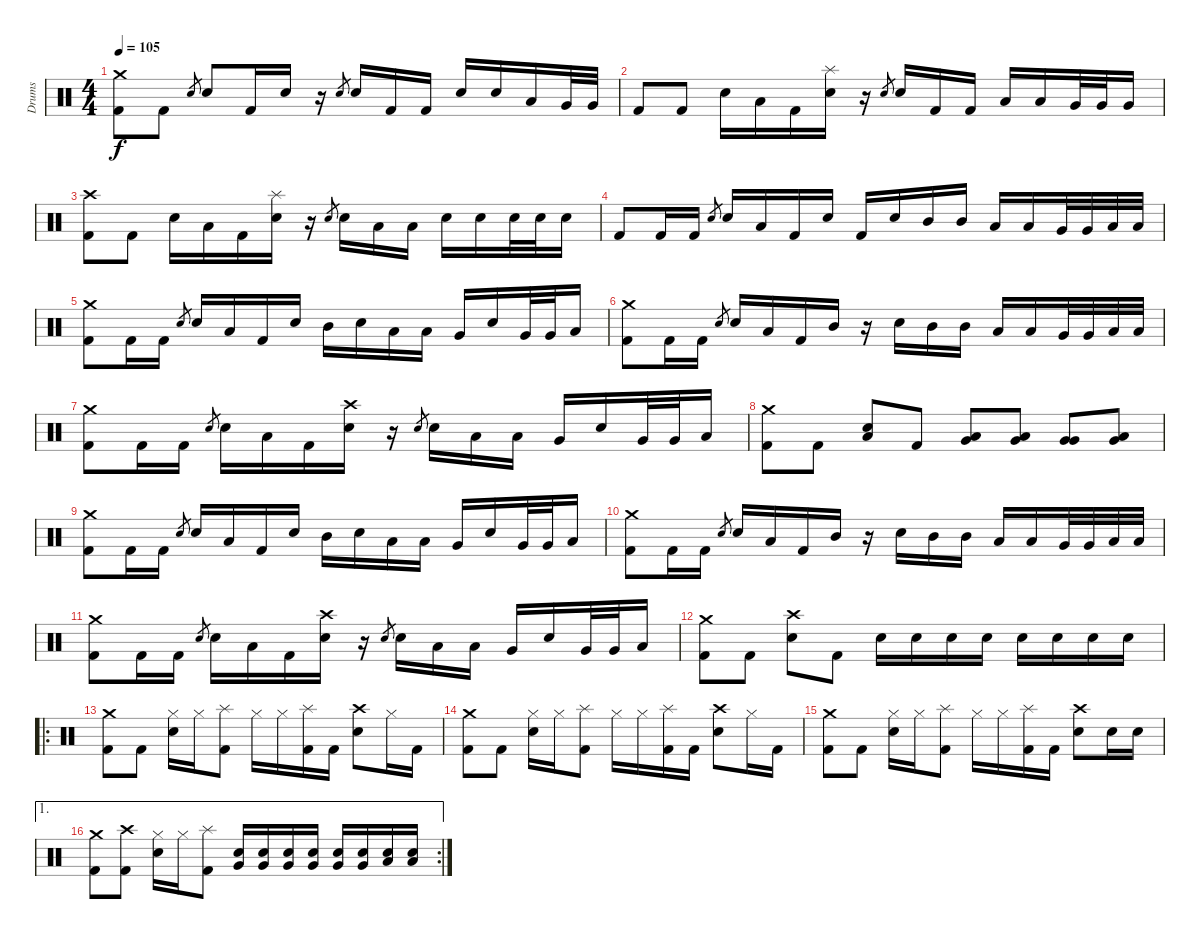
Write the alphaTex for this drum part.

\track ("Drums" "Drums") {instrument percussion}
\staff {score}
\articulation defaults
\ts (4 4)
\tempo 105
\clef neutral
\ks c
("Crash medium (hit)" "Kick (hit) 2").8{dy f} "Kick (hit) 2".8 "Electric Snare (hit)".8{gr} "Electric Snare (hit)".8 "Kick (hit) 2".16 "Electric Snare (hit)".16 r.16 "Electric Snare (hit)".8{gr} "Electric Snare (hit)".16 "Kick (hit) 2".16 "Kick (hit) 2".16 "Electric Snare (hit)".16 "Electric Snare (hit)".16 "Low Tom (hit)".16 "Very Low Tom (hit)".32 "Very Low Tom (hit)".32 |
"Kick (hit) 2".8 "Kick (hit) 2".8 "Electric Snare (hit)".16 "Low Tom (hit)".16 "Kick (hit) 2".16 ("Splash (hit)" "Electric Snare (hit)").16 r.16 "Electric Snare (hit)".8{gr} "Electric Snare (hit)".16 "Kick (hit) 2".16 "Kick (hit) 2".16 "Low Tom (hit)".16 "Low Tom (hit)".16 "Very Low Tom (hit)".32 "Very Low Tom (hit)".32 "Very Low Tom (hit)".16 |
("Crash high (hit)" "Kick (hit) 2").8 "Kick (hit) 2".8 "Electric Snare (hit)".16 "Low Tom (hit)".16 "Kick (hit) 2".16 ("Splash (hit)" "Electric Snare (hit)").16 r.16 "Electric Snare (hit)".8{gr} "Electric Snare (hit)".16 "Low Tom (hit)".16 "Low Tom (hit)".16 "Electric Snare (hit)".16 "Electric Snare (hit)".16 "Electric Snare (hit)".32 "Electric Snare (hit)".32 "Electric Snare (hit)".16 |
"Kick (hit) 2".8 "Kick (hit) 2".16 "Kick (hit) 2".16 "Electric Snare (hit)".8{gr} "Electric Snare (hit)".16 "Low Tom (hit)".16 "Kick (hit) 2".16 "Electric Snare (hit)".16 "Kick (hit) 2".16 "Electric Snare (hit)".16 "Mid Tom (hit)".16 "Mid Tom (hit)".16 "Low Tom (hit)".16 "Low Tom (hit)".16 "Very Low Tom (hit)".32 "Very Low Tom (hit)".32 "Low Floor Tom (hit)".32 "Low Floor Tom (hit)".32 |
("Crash medium (hit)" "Kick (hit) 2").8 "Kick (hit) 2".16 "Kick (hit) 2".16 "Electric Snare (hit)".8{gr} "Electric Snare (hit)".16 "Low Tom (hit)".16 "Kick (hit) 2".16 "Electric Snare (hit)".16 "Mid Tom (hit)".16 "Electric Snare (hit)".16 "Low Tom (hit)".16 "Low Tom (hit)".16 "Very Low Tom (hit)".16 "Electric Snare (hit)".16 "Very Low Tom (hit)".32 "Very Low Tom (hit)".32 "Low Floor Tom (hit)".16 |
("Crash medium (hit)" "Kick (hit) 2").8 "Kick (hit) 2".16 "Kick (hit) 2".16 "Electric Snare (hit)".8{gr} "Electric Snare (hit)".16 "Low Tom (hit)".16 "Kick (hit) 2".16 "Mid Tom (hit)".16 r.16 "Electric Snare (hit)".16 "Mid Tom (hit)".16 "Mid Tom (hit)".16 "Low Tom (hit)".16 "Low Tom (hit)".16 "Very Low Tom (hit)".32 "Very Low Tom (hit)".32 "Low Floor Tom (hit)".32 "Low Floor Tom (hit)".32 |
("Crash medium (hit)" "Kick (hit) 2").8 "Kick (hit) 2".16 "Kick (hit) 2".16 "Electric Snare (hit)".8{gr} "Electric Snare (hit)".16 "Low Tom (hit)".16 "Kick (hit) 2".16 ("Crash high (hit)" "Electric Snare (hit)").16 r.16 "Electric Snare (hit)".8{gr} "Electric Snare (hit)".16 "Low Tom (hit)".16 "Low Tom (hit)".16 "Very Low Tom (hit)".16 "Electric Snare (hit)".16 "Very Low Tom (hit)".32 "Very Low Tom (hit)".32 "Low Floor Tom (hit)".16 |
("Crash medium (hit)" "Kick (hit) 2").8 "Kick (hit) 2".8 ("Low Tom (hit)" "Electric Snare (hit)").8 "Kick (hit) 2".8 ("Very Low Tom (hit)" "Low Tom (hit)").8 ("Very Low Tom (hit)" "Low Tom (hit)").8 ("Very Low Tom (hit)" "Very Low Tom (hit)").8 ("Low Floor Tom (hit)" "Very Low Tom (hit)").8 |
("Crash medium (hit)" "Kick (hit) 2").8 "Kick (hit) 2".16 "Kick (hit) 2".16 "Electric Snare (hit)".8{gr} "Electric Snare (hit)".16 "Low Tom (hit)".16 "Kick (hit) 2".16 "Electric Snare (hit)".16 "Mid Tom (hit)".16 "Electric Snare (hit)".16 "Low Tom (hit)".16 "Low Tom (hit)".16 "Very Low Tom (hit)".16 "Electric Snare (hit)".16 "Very Low Tom (hit)".32 "Very Low Tom (hit)".32 "Low Floor Tom (hit)".16 |
("Crash medium (hit)" "Kick (hit) 2").8 "Kick (hit) 2".16 "Kick (hit) 2".16 "Electric Snare (hit)".8{gr} "Electric Snare (hit)".16 "Low Tom (hit)".16 "Kick (hit) 2".16 "Mid Tom (hit)".16 r.16 "Electric Snare (hit)".16 "Mid Tom (hit)".16 "Mid Tom (hit)".16 "Low Tom (hit)".16 "Low Tom (hit)".16 "Very Low Tom (hit)".32 "Very Low Tom (hit)".32 "Low Floor Tom (hit)".32 "Low Floor Tom (hit)".32 |
("Crash medium (hit)" "Kick (hit) 2").8 "Kick (hit) 2".16 "Kick (hit) 2".16 "Electric Snare (hit)".8{gr} "Electric Snare (hit)".16 "Low Tom (hit)".16 "Kick (hit) 2".16 ("Crash high (hit)" "Electric Snare (hit)").16 r.16 "Electric Snare (hit)".8{gr} "Electric Snare (hit)".16 "Low Tom (hit)".16 "Low Tom (hit)".16 "Very Low Tom (hit)".16 "Electric Snare (hit)".16 "Very Low Tom (hit)".32 "Very Low Tom (hit)".32 "Low Floor Tom (hit)".16 |
("Crash medium (hit)" "Kick (hit) 2").8 "Kick (hit) 2".8 ("Crash high (hit)" "Electric Snare (hit)").8 "Kick (hit) 2".8 "Electric Snare (hit)".16 "Electric Snare (hit)".16 "Electric Snare (hit)".16 "Electric Snare (hit)".16 "Electric Snare (hit)".16 "Electric Snare (hit)".16 "Electric Snare (hit)".16 "Electric Snare (hit)".16 |
\ro
("Crash medium (hit)" "Kick (hit) 2").8 "Kick (hit) 2".8 ("Hi-Hat (closed)" "Electric Snare (hit)").16 "Hi-Hat (closed)".16 ("Splash (hit)" "Kick (hit) 2").8 "Hi-Hat (closed)".16 "Hi-Hat (closed)".16 ("Splash (hit)" "Kick (hit) 2").16 "Kick (hit) 2".16 ("Crash high (hit)" "Electric Snare (hit)").8 "Hi-Hat (closed)".16 "Kick (hit) 2".16 |
("Crash medium (hit)" "Kick (hit) 2").8 "Kick (hit) 2".8 ("Hi-Hat (closed)" "Electric Snare (hit)").16 "Hi-Hat (closed)".16 ("Splash (hit)" "Kick (hit) 2").8 "Hi-Hat (closed)".16 "Hi-Hat (closed)".16 ("Splash (hit)" "Kick (hit) 2").16 "Kick (hit) 2".16 ("Crash high (hit)" "Electric Snare (hit)").8 "Hi-Hat (closed)".16 "Kick (hit) 2".16 |
("Crash medium (hit)" "Kick (hit) 2").8 "Kick (hit) 2".8 ("Hi-Hat (closed)" "Electric Snare (hit)").16 "Hi-Hat (closed)".16 ("Splash (hit)" "Kick (hit) 2").8 "Hi-Hat (closed)".16 "Hi-Hat (closed)".16 ("Splash (hit)" "Kick (hit) 2").16 "Kick (hit) 2".16 ("Crash high (hit)" "Electric Snare (hit)").8 "Electric Snare (hit)".16 "Electric Snare (hit)".16 |
\ae 1
\rc 2
("Crash medium (hit)" "Kick (hit) 2").8 ("Crash high (hit)" "Kick (hit) 2").8 ("Hi-Hat (closed)" "Electric Snare (hit)").16 "Hi-Hat (closed)".16 ("Splash (hit)" "Kick (hit) 2").8 ("Very Low Tom (hit)" "Electric Snare (hit)").16 ("Very Low Tom (hit)" "Electric Snare (hit)").16 ("Very Low Tom (hit)" "Electric Snare (hit)").16 ("Very Low Tom (hit)" "Electric Snare (hit)").16 ("Very Low Tom (hit)" "Electric Snare (hit)").16 ("Very Low Tom (hit)" "Electric Snare (hit)").16 ("Low Floor Tom (hit)" "Electric Snare (hit)").16 ("Low Floor Tom (hit)" "Electric Snare (hit)").16
